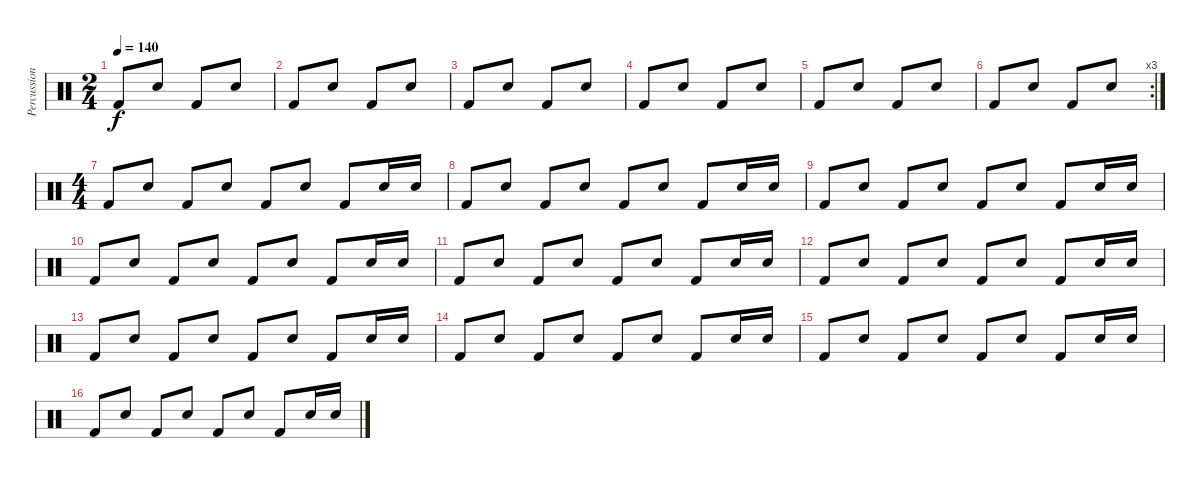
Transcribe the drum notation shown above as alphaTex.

\track ("Percussions" "Percussion") {instrument percussion}
\staff {score}
\articulation defaults
\ts (2 4)
\tempo 140
\clef neutral
\ks c "Kick (hit) 2".8{dy f} "Snare (hit) 2".8 "Kick (hit) 2".8 "Snare (hit) 2".8
|
"Kick (hit) 2".8 "Snare (hit) 2".8 "Kick (hit) 2".8 "Snare (hit) 2".8 |
"Kick (hit) 2".8 "Snare (hit) 2".8 "Kick (hit) 2".8 "Snare (hit) 2".8 |
"Kick (hit) 2".8 "Snare (hit) 2".8 "Kick (hit) 2".8 "Snare (hit) 2".8 |
"Kick (hit) 2".8 "Snare (hit) 2".8 "Kick (hit) 2".8 "Snare (hit) 2".8 |
\rc 3 "Kick (hit) 2".8 "Snare (hit) 2".8 "Kick (hit) 2".8 "Snare (hit) 2".8
|
\ts (4 4)
"Kick (hit) 2".8 "Snare (hit) 2".8 "Kick (hit) 2".8 "Snare (hit) 2".8 "Kick (hit) 2".8 "Snare (hit) 2".8 "Kick (hit) 2".8 "Snare (hit) 2".16 "Snare (hit) 2".16 |
"Kick (hit) 2".8 "Snare (hit) 2".8 "Kick (hit) 2".8 "Snare (hit) 2".8 "Kick (hit) 2".8 "Snare (hit) 2".8 "Kick (hit) 2".8 "Snare (hit) 2".16 "Snare (hit) 2".16 |
"Kick (hit) 2".8 "Snare (hit) 2".8 "Kick (hit) 2".8 "Snare (hit) 2".8 "Kick (hit) 2".8 "Snare (hit) 2".8 "Kick (hit) 2".8 "Snare (hit) 2".16 "Snare (hit) 2".16 |
"Kick (hit) 2".8 "Snare (hit) 2".8 "Kick (hit) 2".8 "Snare (hit) 2".8 "Kick (hit) 2".8 "Snare (hit) 2".8 "Kick (hit) 2".8 "Snare (hit) 2".16 "Snare (hit) 2".16 |
"Kick (hit) 2".8 "Snare (hit) 2".8 "Kick (hit) 2".8 "Snare (hit) 2".8 "Kick (hit) 2".8 "Snare (hit) 2".8 "Kick (hit) 2".8 "Snare (hit) 2".16 "Snare (hit) 2".16 |
"Kick (hit) 2".8 "Snare (hit) 2".8 "Kick (hit) 2".8 "Snare (hit) 2".8 "Kick (hit) 2".8 "Snare (hit) 2".8 "Kick (hit) 2".8 "Snare (hit) 2".16 "Snare (hit) 2".16 |
"Kick (hit) 2".8 "Snare (hit) 2".8 "Kick (hit) 2".8 "Snare (hit) 2".8 "Kick (hit) 2".8 "Snare (hit) 2".8 "Kick (hit) 2".8 "Snare (hit) 2".16 "Snare (hit) 2".16 |
"Kick (hit) 2".8 "Snare (hit) 2".8 "Kick (hit) 2".8 "Snare (hit) 2".8 "Kick (hit) 2".8 "Snare (hit) 2".8 "Kick (hit) 2".8 "Snare (hit) 2".16 "Snare (hit) 2".16 |
"Kick (hit) 2".8 "Snare (hit) 2".8 "Kick (hit) 2".8 "Snare (hit) 2".8 "Kick (hit) 2".8 "Snare (hit) 2".8 "Kick (hit) 2".8 "Snare (hit) 2".16 "Snare (hit) 2".16 |
"Kick (hit) 2".8 "Snare (hit) 2".8 "Kick (hit) 2".8 "Snare (hit) 2".8 "Kick (hit) 2".8 "Snare (hit) 2".8 "Kick (hit) 2".8 "Snare (hit) 2".16 "Snare (hit) 2".16
